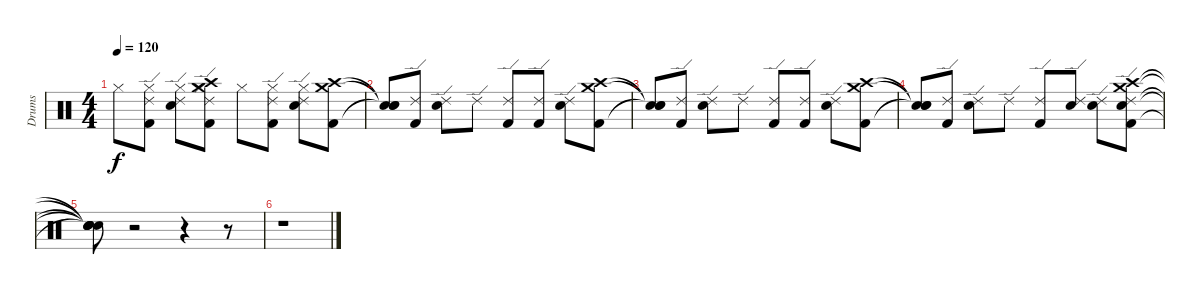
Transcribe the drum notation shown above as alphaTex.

\track ("Drums" "Drums") {instrument percussion}
\staff {score}
\articulation defaults
\ts (4 4)
\tempo 120
\clef neutral
\ks c "Hi-Hat (closed)".8{dy f}
("Hi-Hat (closed)" "Kick (hit) 2" "Ride (edge) 2").8 ("Ride (edge) 2" "Hi-Hat (closed)" "Snare (hit) 2").8 ("Ride (edge) 2" "Hi-Hat (closed)" "Crash high (hit)" "Kick (hit) 2" "Crash medium (hit)").8 "Hi-Hat (closed)".8 ("Ride (edge) 2" "Hi-Hat (closed)" "Kick (hit) 2").8 ("Ride (edge) 2" "Hi-Hat (closed)" "Snare (hit) 2").8 ("Kick (hit) 2" "Crash high (hit)" "Crash medium (hit)").8 |
("Snare (hit)"{t} "Snare (hit)"{t} "Snare (hit)"{t}).8 ("Ride (edge) 2" "Kick (hit) 2").8 ("Ride (edge) 2" "Snare (hit) 2").8 "Ride (edge) 2".8 ("Kick (hit) 2" "Ride (edge) 2").8 ("Ride (edge) 2" "Kick (hit) 2").8 ("Snare (hit) 2" "Ride (edge) 2").8 ("Crash high (hit)" "Kick (hit) 2" "Crash medium (hit)").8 |
("Snare (hit)"{t} "Snare (hit)"{t} "Snare (hit)"{t}).8 ("Ride (edge) 2" "Kick (hit) 2").8 ("Snare (hit) 2" "Ride (edge) 2").8 "Ride (edge) 2".8 ("Kick (hit) 2" "Ride (edge) 2").8 ("Ride (edge) 2" "Kick (hit) 2").8 ("Ride (edge) 2" "Snare (hit) 2").8 ("Crash medium (hit)" "Crash high (hit)" "Kick (hit) 2").8 |
("Snare (hit)"{t} "Snare (hit)"{t} "Snare (hit)"{t}).8 ("Ride (edge) 2" "Kick (hit) 2").8 ("Ride (edge) 2" "Snare (hit) 2").8 "Ride (edge) 2".8 ("Ride (edge) 2" "Kick (hit) 2").8 ("Ride (edge) 2" "Snare (hit) 2").8 ("Ride (edge) 2" "Snare (hit) 2").8 ("Ride (edge) 2" "Snare (hit) 2" "Kick (hit) 2" "Crash high (hit)" "Crash medium (hit)").8 |
("Snare (hit)"{t} "Snare (hit)"{t} "Snare (hit)"{t} "Snare (hit)"{t} "Snare (hit)"{t}).8 r.2 r.4 r.8 |
r.1
